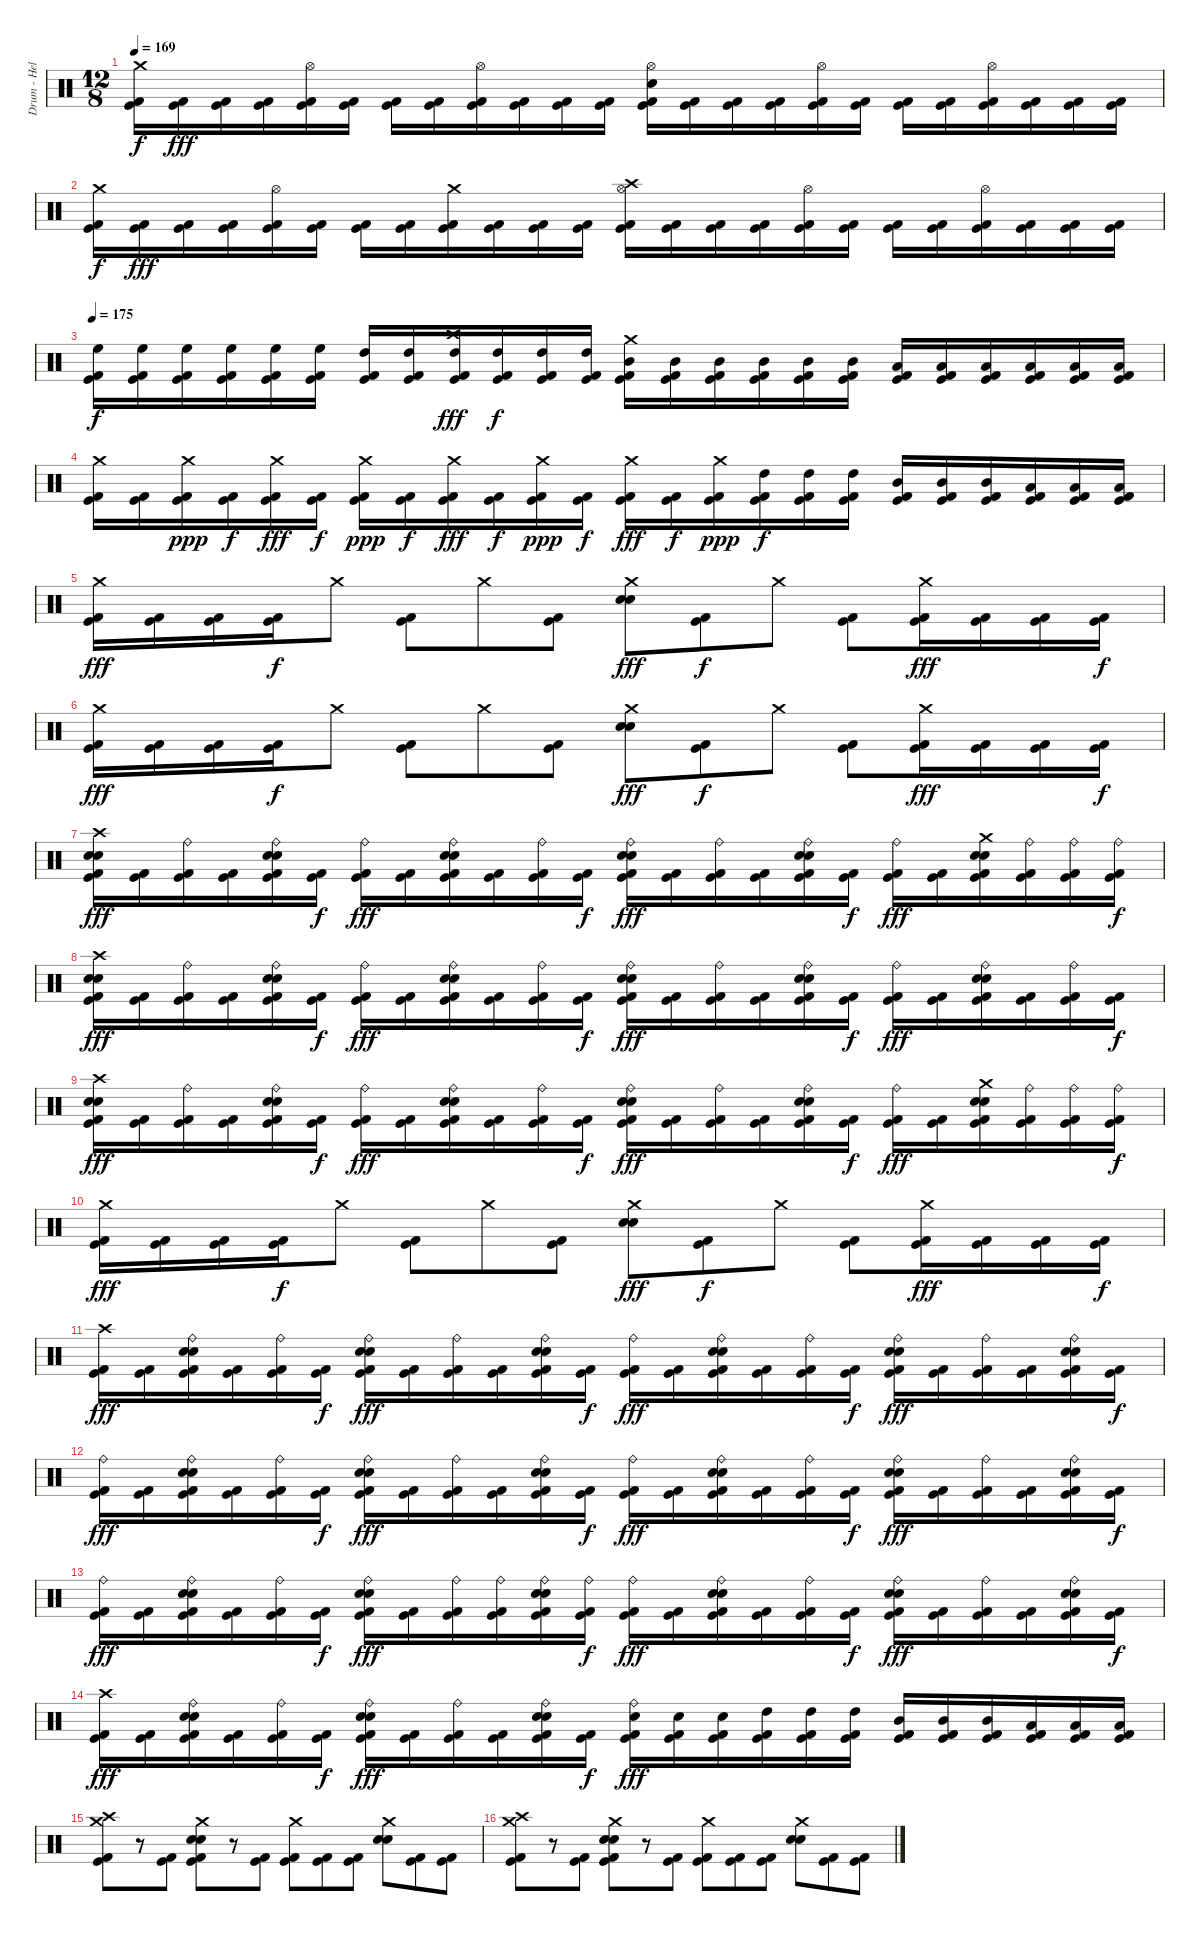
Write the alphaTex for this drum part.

\track ("Drum - Hellhammer" "Drum - Hel") {instrument percussion}
\staff {score}
\articulation defaults
\ts (12 8)
\tempo 169
\clef neutral
\ks c
("Crash medium (hit)" "Kick (hit) 2" "Kick (hit)").16{dy f} ("Kick (hit) 2" "Kick (hit)").16{dy fff} ("Kick (hit) 2" "Kick (hit)").16 ("Kick (hit) 2" "Kick (hit)").16 ("Hi-Hat (open)" "Kick (hit) 2" "Kick (hit)").16 ("Kick (hit) 2" "Kick (hit)").16 ("Kick (hit) 2" "Kick (hit)").16 ("Kick (hit) 2" "Kick (hit)").16 ("Hi-Hat (open)" "Kick (hit) 2" "Kick (hit)").16 ("Kick (hit) 2" "Kick (hit)").16 ("Kick (hit) 2" "Kick (hit)").16 ("Kick (hit) 2" "Kick (hit)").16 ("Electric Snare (hit)" "Hi-Hat (open)" "Kick (hit) 2" "Kick (hit)").16 ("Kick (hit) 2" "Kick (hit)").16 ("Kick (hit) 2" "Kick (hit)").16 ("Kick (hit) 2" "Kick (hit)").16 ("Hi-Hat (open)" "Kick (hit) 2" "Kick (hit)").16 ("Kick (hit) 2" "Kick (hit)").16 ("Kick (hit) 2" "Kick (hit)").16 ("Kick (hit) 2" "Kick (hit)").16 ("Hi-Hat (open)" "Kick (hit) 2" "Kick (hit)").16 ("Kick (hit) 2" "Kick (hit)").16 ("Kick (hit) 2" "Kick (hit)").16 ("Kick (hit) 2" "Kick (hit)").16 |
("Crash medium (hit)" "Kick (hit) 2" "Kick (hit)").16{dy f} ("Kick (hit) 2" "Kick (hit)").16{dy fff} ("Kick (hit) 2" "Kick (hit)").16 ("Kick (hit) 2" "Kick (hit)").16 ("Hi-Hat (open)" "Kick (hit) 2" "Kick (hit)").16 ("Kick (hit) 2" "Kick (hit)").16 ("Kick (hit) 2" "Kick (hit)").16 ("Kick (hit) 2" "Kick (hit)").16 ("Crash medium (hit)" "Kick (hit) 2" "Kick (hit)").16 ("Kick (hit) 2" "Kick (hit)").16 ("Kick (hit) 2" "Kick (hit)").16 ("Kick (hit) 2" "Kick (hit)").16 ("Crash high (hit)" "Hi-Hat (open)" "Kick (hit) 2" "Kick (hit)").16 ("Kick (hit) 2" "Kick (hit)").16 ("Kick (hit) 2" "Kick (hit)").16 ("Kick (hit) 2" "Kick (hit)").16 ("Hi-Hat (open)" "Kick (hit) 2" "Kick (hit)").16 ("Kick (hit) 2" "Kick (hit)").16 ("Kick (hit) 2" "Kick (hit)").16 ("Kick (hit) 2" "Kick (hit)").16 ("Hi-Hat (open)" "Kick (hit) 2" "Kick (hit)").16 ("Kick (hit) 2" "Kick (hit)").16 ("Kick (hit) 2" "Kick (hit)").16 ("Kick (hit) 2" "Kick (hit)").16 |
\tempo 175
("High Floor Tom (hit)" "Kick (hit) 2" "Kick (hit)").16{dy f} ("High Floor Tom (hit)" "Kick (hit) 2" "Kick (hit)").16 ("High Floor Tom (hit)" "Kick (hit) 2" "Kick (hit)").16 ("High Floor Tom (hit)" "Kick (hit) 2" "Kick (hit)").16 ("High Floor Tom (hit)" "Kick (hit) 2" "Kick (hit)").16 ("High Floor Tom (hit)" "Kick (hit) 2" "Kick (hit)").16 ("High Tom (hit)" "Kick (hit) 2" "Kick (hit)").16 ("High Tom (hit)" "Kick (hit) 2" "Kick (hit)").16 ("High Tom (hit)" "Crash high (hit)" "Kick (hit) 2" "Kick (hit)").16{dy fff} ("High Tom (hit)" "Kick (hit) 2" "Kick (hit)").16{dy f} ("High Tom (hit)" "Kick (hit) 2" "Kick (hit)").16 ("High Tom (hit)" "Kick (hit) 2" "Kick (hit)").16 ("Mid Tom (hit)" "Crash medium (hit)" "Kick (hit) 2" "Kick (hit)").16 ("Mid Tom (hit)" "Kick (hit) 2" "Kick (hit)").16 ("Mid Tom (hit)" "Kick (hit) 2" "Kick (hit)").16 ("Mid Tom (hit)" "Kick (hit) 2" "Kick (hit)").16 ("Mid Tom (hit)" "Kick (hit) 2" "Kick (hit)").16 ("Mid Tom (hit)" "Kick (hit) 2" "Kick (hit)").16 ("Low Tom (hit)" "Kick (hit) 2" "Kick (hit)").16 ("Low Tom (hit)" "Kick (hit) 2" "Kick (hit)").16 ("Low Tom (hit)" "Kick (hit) 2" "Kick (hit)").16 ("Low Tom (hit)" "Kick (hit) 2" "Kick (hit)").16 ("Low Tom (hit)" "Kick (hit) 2" "Kick (hit)").16 ("Low Tom (hit)" "Kick (hit) 2" "Kick (hit)").16 |
("Crash medium (hit)" "Kick (hit) 2" "Kick (hit)").16 ("Kick (hit) 2" "Kick (hit)").16 ("Crash medium (hit)" "Kick (hit) 2" "Kick (hit)").16{dy ppp} ("Kick (hit) 2" "Kick (hit)").16{dy f} ("Crash medium (hit)" "Kick (hit) 2" "Kick (hit)").16{dy fff} ("Kick (hit) 2" "Kick (hit)").16{dy f} ("Crash medium (hit)" "Kick (hit) 2" "Kick (hit)").16{dy ppp} ("Kick (hit) 2" "Kick (hit)").16{dy f} ("Crash medium (hit)" "Kick (hit) 2" "Kick (hit)").16{dy fff} ("Kick (hit) 2" "Kick (hit)").16{dy f} ("Crash medium (hit)" "Kick (hit) 2" "Kick (hit)").16{dy ppp} ("Kick (hit) 2" "Kick (hit)").16{dy f} ("Crash medium (hit)" "Kick (hit) 2" "Kick (hit)").16{dy fff} ("Kick (hit) 2" "Kick (hit)").16{dy f} ("Crash medium (hit)" "Kick (hit) 2" "Kick (hit)").16{dy ppp} ("High Tom (hit)" "Kick (hit) 2" "Kick (hit)").16{dy f} ("High Tom (hit)" "Kick (hit) 2" "Kick (hit)").16 ("High Tom (hit)" "Kick (hit) 2" "Kick (hit)").16 ("Mid Tom (hit)" "Kick (hit) 2" "Kick (hit)").16 ("Mid Tom (hit)" "Kick (hit) 2" "Kick (hit)").16 ("Mid Tom (hit)" "Kick (hit) 2" "Kick (hit)").16 ("Low Tom (hit)" "Kick (hit) 2" "Kick (hit)").16 ("Low Tom (hit)" "Kick (hit) 2" "Kick (hit)").16 ("Low Tom (hit)" "Kick (hit) 2" "Kick (hit)").16 |
("Crash medium (hit)" "Kick (hit) 2" "Kick (hit)").16{dy fff} ("Kick (hit) 2" "Kick (hit)").16 ("Kick (hit) 2" "Kick (hit)").16 ("Kick (hit) 2" "Kick (hit)").16{dy f} "Crash medium (hit)".8 ("Kick (hit) 2" "Kick (hit)").8 "Crash medium (hit)".8 ("Kick (hit) 2" "Kick (hit)").8 ("Crash medium (hit)" "Electric Snare (hit)" "Electric Snare (hit)").8{dy fff} ("Kick (hit) 2" "Kick (hit)").8{dy f} "Crash medium (hit)".8 ("Kick (hit) 2" "Kick (hit)").8 ("Crash medium (hit)" "Kick (hit) 2" "Kick (hit)").16{dy fff} ("Kick (hit) 2" "Kick (hit)").16 ("Kick (hit) 2" "Kick (hit)").16 ("Kick (hit) 2" "Kick (hit)").16{dy f} |
("Crash medium (hit)" "Kick (hit) 2" "Kick (hit)").16{dy fff} ("Kick (hit) 2" "Kick (hit)").16 ("Kick (hit) 2" "Kick (hit)").16 ("Kick (hit) 2" "Kick (hit)").16{dy f} "Crash medium (hit)".8 ("Kick (hit) 2" "Kick (hit)").8 "Crash medium (hit)".8 ("Kick (hit) 2" "Kick (hit)").8 ("Crash medium (hit)" "Electric Snare (hit)" "Electric Snare (hit)").8{dy fff} ("Kick (hit) 2" "Kick (hit)").8{dy f} "Crash medium (hit)".8 ("Kick (hit) 2" "Kick (hit)").8 ("Crash medium (hit)" "Kick (hit) 2" "Kick (hit)").16{dy fff} ("Kick (hit) 2" "Kick (hit)").16 ("Kick (hit) 2" "Kick (hit)").16 ("Kick (hit) 2" "Kick (hit)").16{dy f} |
("Crash high (hit)" "Electric Snare (hit)" "Electric Snare (hit)" "Kick (hit) 2" "Kick (hit)").16{dy fff} ("Kick (hit) 2" "Kick (hit)").16 ("Ride (bell)" "Kick (hit) 2" "Kick (hit)").16 ("Kick (hit) 2" "Kick (hit)").16 ("Ride (bell)" "Electric Snare (hit)" "Electric Snare (hit)" "Kick (hit) 2" "Kick (hit)").16 ("Kick (hit) 2" "Kick (hit)").16{dy f} ("Ride (bell)" "Kick (hit) 2" "Kick (hit)").16{dy fff} ("Kick (hit) 2" "Kick (hit)").16 ("Ride (bell)" "Electric Snare (hit)" "Electric Snare (hit)" "Kick (hit) 2" "Kick (hit)").16 ("Kick (hit) 2" "Kick (hit)").16 ("Ride (bell)" "Kick (hit) 2" "Kick (hit)").16 ("Kick (hit) 2" "Kick (hit)").16{dy f} ("Ride (bell)" "Electric Snare (hit)" "Electric Snare (hit)" "Kick (hit) 2" "Kick (hit)").16{dy fff} ("Kick (hit) 2" "Kick (hit)").16 ("Ride (bell)" "Kick (hit) 2" "Kick (hit)").16 ("Kick (hit) 2" "Kick (hit)").16 ("Ride (bell)" "Electric Snare (hit)" "Electric Snare (hit)" "Kick (hit) 2" "Kick (hit)").16 ("Kick (hit) 2" "Kick (hit)").16{dy f} ("Ride (bell)" "Kick (hit) 2" "Kick (hit)").16{dy fff} ("Kick (hit) 2" "Kick (hit)").16 ("Crash medium (hit)" "Electric Snare (hit)" "Electric Snare (hit)" "Kick (hit) 2" "Kick (hit)").16 ("Ride (bell)" "Kick (hit) 2" "Kick (hit)").16 ("Ride (bell)" "Kick (hit) 2" "Kick (hit)").16 ("Ride (bell)" "Kick (hit) 2" "Kick (hit)").16{dy f} |
("Crash high (hit)" "Electric Snare (hit)" "Electric Snare (hit)" "Kick (hit) 2" "Kick (hit)").16{dy fff} ("Kick (hit) 2" "Kick (hit)").16 ("Ride (bell)" "Kick (hit) 2" "Kick (hit)").16 ("Kick (hit) 2" "Kick (hit)").16 ("Ride (bell)" "Electric Snare (hit)" "Electric Snare (hit)" "Kick (hit) 2" "Kick (hit)").16 ("Kick (hit) 2" "Kick (hit)").16{dy f} ("Ride (bell)" "Kick (hit) 2" "Kick (hit)").16{dy fff} ("Kick (hit) 2" "Kick (hit)").16 ("Ride (bell)" "Electric Snare (hit)" "Electric Snare (hit)" "Kick (hit) 2" "Kick (hit)").16 ("Kick (hit) 2" "Kick (hit)").16 ("Ride (bell)" "Kick (hit) 2" "Kick (hit)").16 ("Kick (hit) 2" "Kick (hit)").16{dy f} ("Ride (bell)" "Electric Snare (hit)" "Electric Snare (hit)" "Kick (hit) 2" "Kick (hit)").16{dy fff} ("Kick (hit) 2" "Kick (hit)").16 ("Ride (bell)" "Kick (hit) 2" "Kick (hit)").16 ("Kick (hit) 2" "Kick (hit)").16 ("Ride (bell)" "Electric Snare (hit)" "Electric Snare (hit)" "Kick (hit) 2" "Kick (hit)").16 ("Kick (hit) 2" "Kick (hit)").16{dy f} ("Ride (bell)" "Kick (hit) 2" "Kick (hit)").16{dy fff} ("Kick (hit) 2" "Kick (hit)").16 ("Ride (bell)" "Electric Snare (hit)" "Electric Snare (hit)" "Kick (hit) 2" "Kick (hit)").16 ("Kick (hit) 2" "Kick (hit)").16 ("Ride (bell)" "Kick (hit) 2" "Kick (hit)").16 ("Kick (hit) 2" "Kick (hit)").16{dy f} |
("Crash high (hit)" "Electric Snare (hit)" "Electric Snare (hit)" "Kick (hit) 2" "Kick (hit)").16{dy fff} ("Kick (hit) 2" "Kick (hit)").16 ("Ride (bell)" "Kick (hit) 2" "Kick (hit)").16 ("Kick (hit) 2" "Kick (hit)").16 ("Ride (bell)" "Electric Snare (hit)" "Electric Snare (hit)" "Kick (hit) 2" "Kick (hit)").16 ("Kick (hit) 2" "Kick (hit)").16{dy f} ("Ride (bell)" "Kick (hit) 2" "Kick (hit)").16{dy fff} ("Kick (hit) 2" "Kick (hit)").16 ("Ride (bell)" "Electric Snare (hit)" "Electric Snare (hit)" "Kick (hit) 2" "Kick (hit)").16 ("Kick (hit) 2" "Kick (hit)").16 ("Ride (bell)" "Kick (hit) 2" "Kick (hit)").16 ("Kick (hit) 2" "Kick (hit)").16{dy f} ("Ride (bell)" "Electric Snare (hit)" "Electric Snare (hit)" "Kick (hit) 2" "Kick (hit)").16{dy fff} ("Kick (hit) 2" "Kick (hit)").16 ("Ride (bell)" "Kick (hit) 2" "Kick (hit)").16 ("Kick (hit) 2" "Kick (hit)").16 ("Ride (bell)" "Electric Snare (hit)" "Electric Snare (hit)" "Kick (hit) 2" "Kick (hit)").16 ("Kick (hit) 2" "Kick (hit)").16{dy f} ("Ride (bell)" "Kick (hit) 2" "Kick (hit)").16{dy fff} ("Kick (hit) 2" "Kick (hit)").16 ("Crash medium (hit)" "Electric Snare (hit)" "Electric Snare (hit)" "Kick (hit) 2" "Kick (hit)").16 ("Ride (bell)" "Kick (hit) 2" "Kick (hit)").16 ("Ride (bell)" "Kick (hit) 2" "Kick (hit)").16 ("Ride (bell)" "Kick (hit) 2" "Kick (hit)").16{dy f} |
("Crash medium (hit)" "Kick (hit) 2" "Kick (hit)").16{dy fff} ("Kick (hit) 2" "Kick (hit)").16 ("Kick (hit) 2" "Kick (hit)").16 ("Kick (hit) 2" "Kick (hit)").16{dy f} "Crash medium (hit)".8 ("Kick (hit) 2" "Kick (hit)").8 "Crash medium (hit)".8 ("Kick (hit) 2" "Kick (hit)").8 ("Crash medium (hit)" "Electric Snare (hit)" "Electric Snare (hit)").8{dy fff} ("Kick (hit) 2" "Kick (hit)").8{dy f} "Crash medium (hit)".8 ("Kick (hit) 2" "Kick (hit)").8 ("Crash medium (hit)" "Kick (hit) 2" "Kick (hit)").16{dy fff} ("Kick (hit) 2" "Kick (hit)").16 ("Kick (hit) 2" "Kick (hit)").16 ("Kick (hit) 2" "Kick (hit)").16{dy f} |
("Crash high (hit)" "Kick (hit) 2" "Kick (hit)").16{dy fff} ("Kick (hit) 2" "Kick (hit)").16 ("Ride (bell)" "Electric Snare (hit)" "Electric Snare (hit)" "Kick (hit) 2" "Kick (hit)").16 ("Kick (hit) 2" "Kick (hit)").16 ("Ride (bell)" "Kick (hit) 2" "Kick (hit)").16 ("Kick (hit) 2" "Kick (hit)").16{dy f} ("Ride (bell)" "Electric Snare (hit)" "Electric Snare (hit)" "Kick (hit) 2" "Kick (hit)").16{dy fff} ("Kick (hit) 2" "Kick (hit)").16 ("Ride (bell)" "Kick (hit) 2" "Kick (hit)").16 ("Kick (hit) 2" "Kick (hit)").16 ("Ride (bell)" "Electric Snare (hit)" "Electric Snare (hit)" "Kick (hit) 2" "Kick (hit)").16 ("Kick (hit) 2" "Kick (hit)").16{dy f} ("Ride (bell)" "Kick (hit) 2" "Kick (hit)").16{dy fff} ("Kick (hit) 2" "Kick (hit)").16 ("Ride (bell)" "Electric Snare (hit)" "Electric Snare (hit)" "Kick (hit) 2" "Kick (hit)").16 ("Kick (hit) 2" "Kick (hit)").16 ("Ride (bell)" "Kick (hit) 2" "Kick (hit)").16 ("Kick (hit) 2" "Kick (hit)").16{dy f} ("Ride (bell)" "Electric Snare (hit)" "Electric Snare (hit)" "Kick (hit) 2" "Kick (hit)").16{dy fff} ("Kick (hit) 2" "Kick (hit)").16 ("Ride (bell)" "Kick (hit) 2" "Kick (hit)").16 ("Kick (hit) 2" "Kick (hit)").16 ("Ride (bell)" "Electric Snare (hit)" "Electric Snare (hit)" "Kick (hit) 2" "Kick (hit)").16 ("Kick (hit) 2" "Kick (hit)").16{dy f} |
("Ride (bell)" "Kick (hit) 2" "Kick (hit)").16{dy fff} ("Kick (hit) 2" "Kick (hit)").16 ("Ride (bell)" "Electric Snare (hit)" "Electric Snare (hit)" "Kick (hit) 2" "Kick (hit)").16 ("Kick (hit) 2" "Kick (hit)").16 ("Ride (bell)" "Kick (hit) 2" "Kick (hit)").16 ("Kick (hit) 2" "Kick (hit)").16{dy f} ("Ride (bell)" "Electric Snare (hit)" "Electric Snare (hit)" "Kick (hit) 2" "Kick (hit)").16{dy fff} ("Kick (hit) 2" "Kick (hit)").16 ("Ride (bell)" "Kick (hit) 2" "Kick (hit)").16 ("Kick (hit) 2" "Kick (hit)").16 ("Ride (bell)" "Electric Snare (hit)" "Electric Snare (hit)" "Kick (hit) 2" "Kick (hit)").16 ("Kick (hit) 2" "Kick (hit)").16{dy f} ("Ride (bell)" "Kick (hit) 2" "Kick (hit)").16{dy fff} ("Kick (hit) 2" "Kick (hit)").16 ("Ride (bell)" "Electric Snare (hit)" "Electric Snare (hit)" "Kick (hit) 2" "Kick (hit)").16 ("Kick (hit) 2" "Kick (hit)").16 ("Ride (bell)" "Kick (hit) 2" "Kick (hit)").16 ("Kick (hit) 2" "Kick (hit)").16{dy f} ("Ride (bell)" "Electric Snare (hit)" "Electric Snare (hit)" "Kick (hit) 2" "Kick (hit)").16{dy fff} ("Kick (hit) 2" "Kick (hit)").16 ("Ride (bell)" "Kick (hit) 2" "Kick (hit)").16 ("Kick (hit) 2" "Kick (hit)").16 ("Ride (bell)" "Electric Snare (hit)" "Electric Snare (hit)" "Kick (hit) 2" "Kick (hit)").16 ("Kick (hit) 2" "Kick (hit)").16{dy f} |
("Ride (bell)" "Kick (hit) 2" "Kick (hit)").16{dy fff} ("Kick (hit) 2" "Kick (hit)").16 ("Ride (bell)" "Electric Snare (hit)" "Electric Snare (hit)" "Kick (hit) 2" "Kick (hit)").16 ("Kick (hit) 2" "Kick (hit)").16 ("Ride (bell)" "Kick (hit) 2" "Kick (hit)").16 ("Kick (hit) 2" "Kick (hit)").16{dy f} ("Ride (bell)" "Electric Snare (hit)" "Electric Snare (hit)" "Kick (hit) 2" "Kick (hit)").16{dy fff} ("Kick (hit) 2" "Kick (hit)").16 ("Ride (bell)" "Kick (hit) 2" "Kick (hit)").16 ("Ride (bell)" "Kick (hit) 2" "Kick (hit)").16 ("Ride (bell)" "Electric Snare (hit)" "Electric Snare (hit)" "Kick (hit) 2" "Kick (hit)").16 ("Ride (bell)" "Kick (hit) 2" "Kick (hit)").16{dy f} ("Ride (bell)" "Kick (hit) 2" "Kick (hit)").16{dy fff} ("Kick (hit) 2" "Kick (hit)").16 ("Ride (bell)" "Electric Snare (hit)" "Electric Snare (hit)" "Kick (hit) 2" "Kick (hit)").16 ("Kick (hit) 2" "Kick (hit)").16 ("Ride (bell)" "Kick (hit) 2" "Kick (hit)").16 ("Kick (hit) 2" "Kick (hit)").16{dy f} ("Ride (bell)" "Electric Snare (hit)" "Electric Snare (hit)" "Kick (hit) 2" "Kick (hit)").16{dy fff} ("Kick (hit) 2" "Kick (hit)").16 ("Ride (bell)" "Kick (hit) 2" "Kick (hit)").16 ("Kick (hit) 2" "Kick (hit)").16 ("Ride (bell)" "Electric Snare (hit)" "Electric Snare (hit)" "Kick (hit) 2" "Kick (hit)").16 ("Kick (hit) 2" "Kick (hit)").16{dy f} |
("Crash high (hit)" "Kick (hit) 2" "Kick (hit)").16{dy fff} ("Kick (hit) 2" "Kick (hit)").16 ("Ride (bell)" "Electric Snare (hit)" "Electric Snare (hit)" "Kick (hit) 2" "Kick (hit)").16 ("Kick (hit) 2" "Kick (hit)").16 ("Ride (bell)" "Kick (hit) 2" "Kick (hit)").16 ("Kick (hit) 2" "Kick (hit)").16{dy f} ("Ride (bell)" "Electric Snare (hit)" "Electric Snare (hit)" "Kick (hit) 2" "Kick (hit)").16{dy fff} ("Kick (hit) 2" "Kick (hit)").16 ("Ride (bell)" "Kick (hit) 2" "Kick (hit)").16 ("Kick (hit) 2" "Kick (hit)").16 ("Ride (bell)" "Electric Snare (hit)" "Electric Snare (hit)" "Kick (hit) 2" "Kick (hit)").16 ("Kick (hit) 2" "Kick (hit)").16{dy f} ("Ride (bell)" "Electric Snare (hit)" "Kick (hit) 2" "Kick (hit)").16{dy fff} ("Electric Snare (hit)" "Kick (hit) 2" "Kick (hit)").16 ("Electric Snare (hit)" "Kick (hit) 2" "Kick (hit)").16 ("High Tom (hit)" "Kick (hit) 2" "Kick (hit)").16 ("High Tom (hit)" "Kick (hit) 2" "Kick (hit)").16 ("High Tom (hit)" "Kick (hit) 2" "Kick (hit)").16 ("Mid Tom (hit)" "Kick (hit) 2" "Kick (hit)").16 ("Mid Tom (hit)" "Kick (hit) 2" "Kick (hit)").16 ("Mid Tom (hit)" "Kick (hit) 2" "Kick (hit)").16 ("Low Tom (hit)" "Kick (hit) 2" "Kick (hit)").16 ("Low Tom (hit)" "Kick (hit) 2" "Kick (hit)").16 ("Low Tom (hit)" "Kick (hit) 2" "Kick (hit)").16 |
("Crash high (hit)" "Crash medium (hit)" "Kick (hit)" "Kick (hit) 2").8 r.8 ("Kick (hit)" "Kick (hit) 2").8 ("Crash medium (hit)" "Electric Snare (hit)" "Electric Snare (hit)" "Kick (hit)" "Kick (hit) 2").8 r.8 ("Kick (hit)" "Kick (hit) 2").8 ("Crash medium (hit)" "Kick (hit)" "Kick (hit) 2").8 ("Kick (hit)" "Kick (hit) 2").8 ("Kick (hit)" "Kick (hit) 2").8 ("Crash medium (hit)" "Electric Snare (hit)" "Electric Snare (hit)").8 ("Kick (hit)" "Kick (hit) 2").8 ("Kick (hit)" "Kick (hit) 2").8 |
("Crash high (hit)" "Crash medium (hit)" "Kick (hit)" "Kick (hit) 2").8 r.8 ("Kick (hit)" "Kick (hit) 2").8 ("Crash medium (hit)" "Electric Snare (hit)" "Electric Snare (hit)" "Kick (hit)" "Kick (hit) 2").8 r.8 ("Kick (hit)" "Kick (hit) 2").8 ("Crash medium (hit)" "Kick (hit)" "Kick (hit) 2").8 ("Kick (hit)" "Kick (hit) 2").8 ("Kick (hit)" "Kick (hit) 2").8 ("Crash medium (hit)" "Electric Snare (hit)" "Electric Snare (hit)").8 ("Kick (hit)" "Kick (hit) 2").8 ("Kick (hit)" "Kick (hit) 2").8
